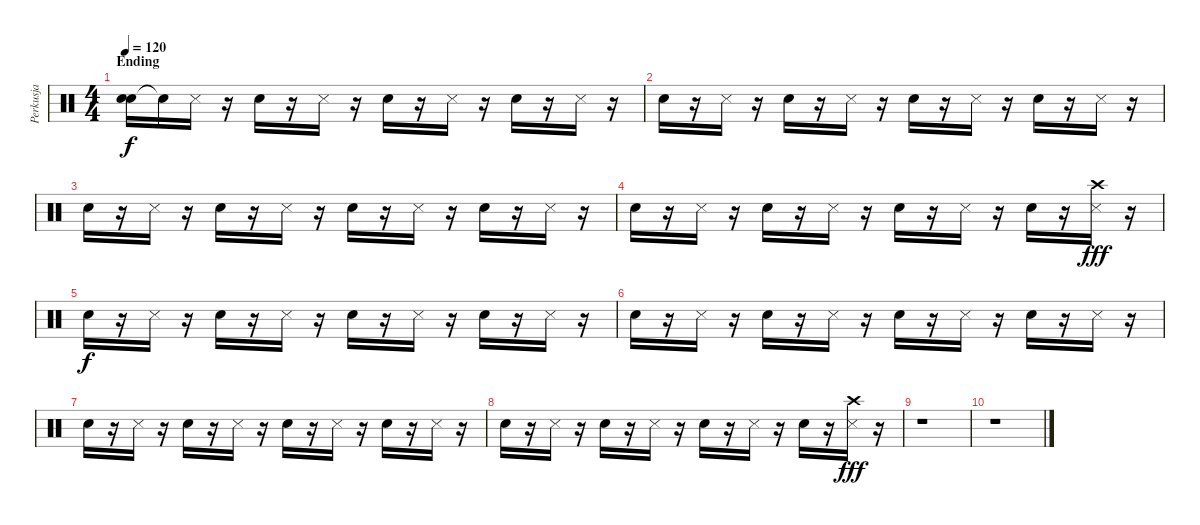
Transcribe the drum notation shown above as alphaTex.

\track ("Perkusja" "Perkusja") {instrument percussion}
\staff {score}
\articulation defaults
\ts (4 4)
\section ("" "Ending")
\tempo 120
\clef neutral
\ks c
("Snare (hit) 2" "Snare (hit)").16{dy f} "Snare (hit)"{t}.16 "Snare (side stick) 3".16 r.16 "Snare (hit) 2".16 r.16 "Snare (side stick) 3".16 r.16 "Snare (hit) 2".16 r.16 "Snare (side stick) 3".16 r.16 "Snare (hit) 2".16 r.16 "Snare (side stick) 3".16 r.16 |
"Snare (hit) 2".16 r.16 "Snare (side stick) 3".16 r.16 "Snare (hit) 2".16 r.16 "Snare (side stick) 3".16 r.16 "Snare (hit) 2".16 r.16 "Snare (side stick) 3".16 r.16 "Snare (hit) 2".16 r.16 "Snare (side stick) 3".16 r.16 |
"Snare (hit) 2".16 r.16 "Snare (side stick) 3".16 r.16 "Snare (hit) 2".16 r.16 "Snare (side stick) 3".16 r.16 "Snare (hit) 2".16 r.16 "Snare (side stick) 3".16 r.16 "Snare (hit) 2".16 r.16 "Snare (side stick) 3".16 r.16 |
"Snare (hit) 2".16 r.16 "Snare (side stick) 3".16 r.16 "Snare (hit) 2".16 r.16 "Snare (side stick) 3".16 r.16 "Snare (hit) 2".16 r.16 "Snare (side stick) 3".16 r.16 "Snare (hit) 2".16 r.16 ("Snare (side stick) 3" "Crash high (hit)").16{dy fff} r.16 |
"Snare (hit) 2".16{dy f} r.16 "Snare (side stick) 3".16 r.16 "Snare (hit) 2".16 r.16 "Snare (side stick) 3".16 r.16 "Snare (hit) 2".16 r.16 "Snare (side stick) 3".16 r.16 "Snare (hit) 2".16 r.16 "Snare (side stick) 3".16 r.16 |
"Snare (hit) 2".16 r.16 "Snare (side stick) 3".16 r.16 "Snare (hit) 2".16 r.16 "Snare (side stick) 3".16 r.16 "Snare (hit) 2".16 r.16 "Snare (side stick) 3".16 r.16 "Snare (hit) 2".16 r.16 "Snare (side stick) 3".16 r.16 |
"Snare (hit) 2".16 r.16 "Snare (side stick) 3".16 r.16 "Snare (hit) 2".16 r.16 "Snare (side stick) 3".16 r.16 "Snare (hit) 2".16 r.16 "Snare (side stick) 3".16 r.16 "Snare (hit) 2".16 r.16 "Snare (side stick) 3".16 r.16 |
"Snare (hit) 2".16 r.16 "Snare (side stick) 3".16 r.16 "Snare (hit) 2".16 r.16 "Snare (side stick) 3".16 r.16 "Snare (hit) 2".16 r.16 "Snare (side stick) 3".16 r.16 "Snare (hit) 2".16 r.16 ("Snare (side stick) 3" "Crash high (hit)").16{dy fff} r.16 |
r.1 |
r.1
